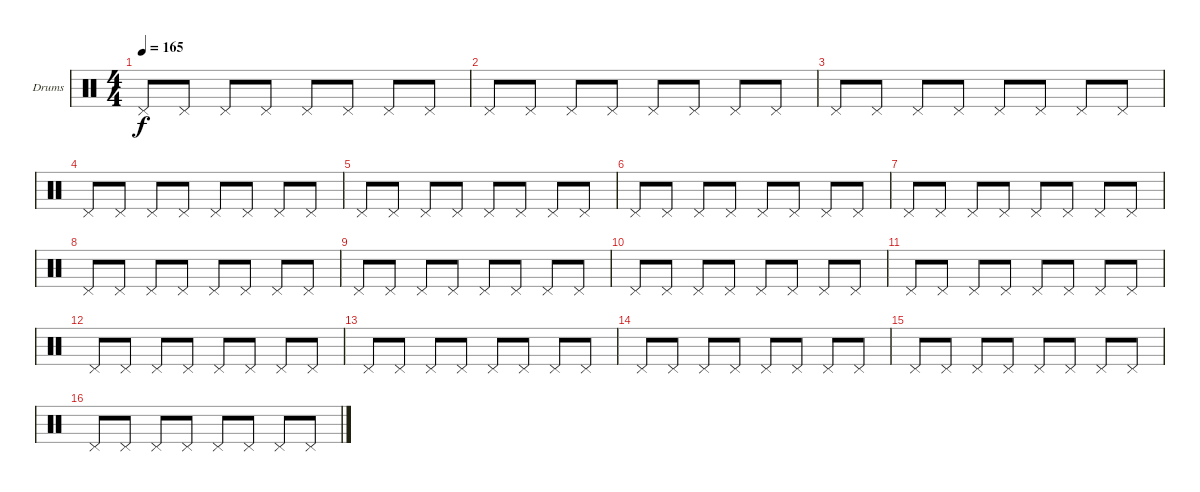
\bracketExtendMode groupsimilarinstruments
\firstSystemTrackNameOrientation horizontal
\otherSystemsTrackNameOrientation horizontal
\track ("Drumkit" "Drums") {instrument percussion}
\staff {score}
\articulation defaults
\ts (4 4)
\tempo 165
\clef neutral
\ks c "Pedal Hi-Hat (hit)".8{dy f} "Pedal Hi-Hat (hit)".8 "Pedal Hi-Hat (hit)".8 "Pedal Hi-Hat (hit)".8 "Pedal Hi-Hat (hit)".8 "Pedal Hi-Hat (hit)".8 "Pedal Hi-Hat (hit)".8 "Pedal Hi-Hat (hit)".8
|
"Pedal Hi-Hat (hit)".8 "Pedal Hi-Hat (hit)".8 "Pedal Hi-Hat (hit)".8 "Pedal Hi-Hat (hit)".8 "Pedal Hi-Hat (hit)".8 "Pedal Hi-Hat (hit)".8 "Pedal Hi-Hat (hit)".8 "Pedal Hi-Hat (hit)".8 |
"Pedal Hi-Hat (hit)".8 "Pedal Hi-Hat (hit)".8 "Pedal Hi-Hat (hit)".8 "Pedal Hi-Hat (hit)".8 "Pedal Hi-Hat (hit)".8 "Pedal Hi-Hat (hit)".8 "Pedal Hi-Hat (hit)".8 "Pedal Hi-Hat (hit)".8 |
"Pedal Hi-Hat (hit)".8 "Pedal Hi-Hat (hit)".8 "Pedal Hi-Hat (hit)".8 "Pedal Hi-Hat (hit)".8 "Pedal Hi-Hat (hit)".8 "Pedal Hi-Hat (hit)".8 "Pedal Hi-Hat (hit)".8 "Pedal Hi-Hat (hit)".8 |
"Pedal Hi-Hat (hit)".8 "Pedal Hi-Hat (hit)".8 "Pedal Hi-Hat (hit)".8 "Pedal Hi-Hat (hit)".8 "Pedal Hi-Hat (hit)".8 "Pedal Hi-Hat (hit)".8 "Pedal Hi-Hat (hit)".8 "Pedal Hi-Hat (hit)".8 |
"Pedal Hi-Hat (hit)".8 "Pedal Hi-Hat (hit)".8 "Pedal Hi-Hat (hit)".8 "Pedal Hi-Hat (hit)".8 "Pedal Hi-Hat (hit)".8 "Pedal Hi-Hat (hit)".8 "Pedal Hi-Hat (hit)".8 "Pedal Hi-Hat (hit)".8 |
"Pedal Hi-Hat (hit)".8 "Pedal Hi-Hat (hit)".8 "Pedal Hi-Hat (hit)".8 "Pedal Hi-Hat (hit)".8 "Pedal Hi-Hat (hit)".8 "Pedal Hi-Hat (hit)".8 "Pedal Hi-Hat (hit)".8 "Pedal Hi-Hat (hit)".8 |
"Pedal Hi-Hat (hit)".8 "Pedal Hi-Hat (hit)".8 "Pedal Hi-Hat (hit)".8 "Pedal Hi-Hat (hit)".8 "Pedal Hi-Hat (hit)".8 "Pedal Hi-Hat (hit)".8 "Pedal Hi-Hat (hit)".8 "Pedal Hi-Hat (hit)".8 |
"Pedal Hi-Hat (hit)".8 "Pedal Hi-Hat (hit)".8 "Pedal Hi-Hat (hit)".8 "Pedal Hi-Hat (hit)".8 "Pedal Hi-Hat (hit)".8 "Pedal Hi-Hat (hit)".8 "Pedal Hi-Hat (hit)".8 "Pedal Hi-Hat (hit)".8 |
"Pedal Hi-Hat (hit)".8 "Pedal Hi-Hat (hit)".8 "Pedal Hi-Hat (hit)".8 "Pedal Hi-Hat (hit)".8 "Pedal Hi-Hat (hit)".8 "Pedal Hi-Hat (hit)".8 "Pedal Hi-Hat (hit)".8 "Pedal Hi-Hat (hit)".8 |
"Pedal Hi-Hat (hit)".8 "Pedal Hi-Hat (hit)".8 "Pedal Hi-Hat (hit)".8 "Pedal Hi-Hat (hit)".8 "Pedal Hi-Hat (hit)".8 "Pedal Hi-Hat (hit)".8 "Pedal Hi-Hat (hit)".8 "Pedal Hi-Hat (hit)".8 |
"Pedal Hi-Hat (hit)".8 "Pedal Hi-Hat (hit)".8 "Pedal Hi-Hat (hit)".8 "Pedal Hi-Hat (hit)".8 "Pedal Hi-Hat (hit)".8 "Pedal Hi-Hat (hit)".8 "Pedal Hi-Hat (hit)".8 "Pedal Hi-Hat (hit)".8 |
"Pedal Hi-Hat (hit)".8 "Pedal Hi-Hat (hit)".8 "Pedal Hi-Hat (hit)".8 "Pedal Hi-Hat (hit)".8 "Pedal Hi-Hat (hit)".8 "Pedal Hi-Hat (hit)".8 "Pedal Hi-Hat (hit)".8 "Pedal Hi-Hat (hit)".8 |
"Pedal Hi-Hat (hit)".8 "Pedal Hi-Hat (hit)".8 "Pedal Hi-Hat (hit)".8 "Pedal Hi-Hat (hit)".8 "Pedal Hi-Hat (hit)".8 "Pedal Hi-Hat (hit)".8 "Pedal Hi-Hat (hit)".8 "Pedal Hi-Hat (hit)".8 |
"Pedal Hi-Hat (hit)".8 "Pedal Hi-Hat (hit)".8 "Pedal Hi-Hat (hit)".8 "Pedal Hi-Hat (hit)".8 "Pedal Hi-Hat (hit)".8 "Pedal Hi-Hat (hit)".8 "Pedal Hi-Hat (hit)".8 "Pedal Hi-Hat (hit)".8 |
"Pedal Hi-Hat (hit)".8 "Pedal Hi-Hat (hit)".8 "Pedal Hi-Hat (hit)".8 "Pedal Hi-Hat (hit)".8 "Pedal Hi-Hat (hit)".8 "Pedal Hi-Hat (hit)".8 "Pedal Hi-Hat (hit)".8 "Pedal Hi-Hat (hit)".8
